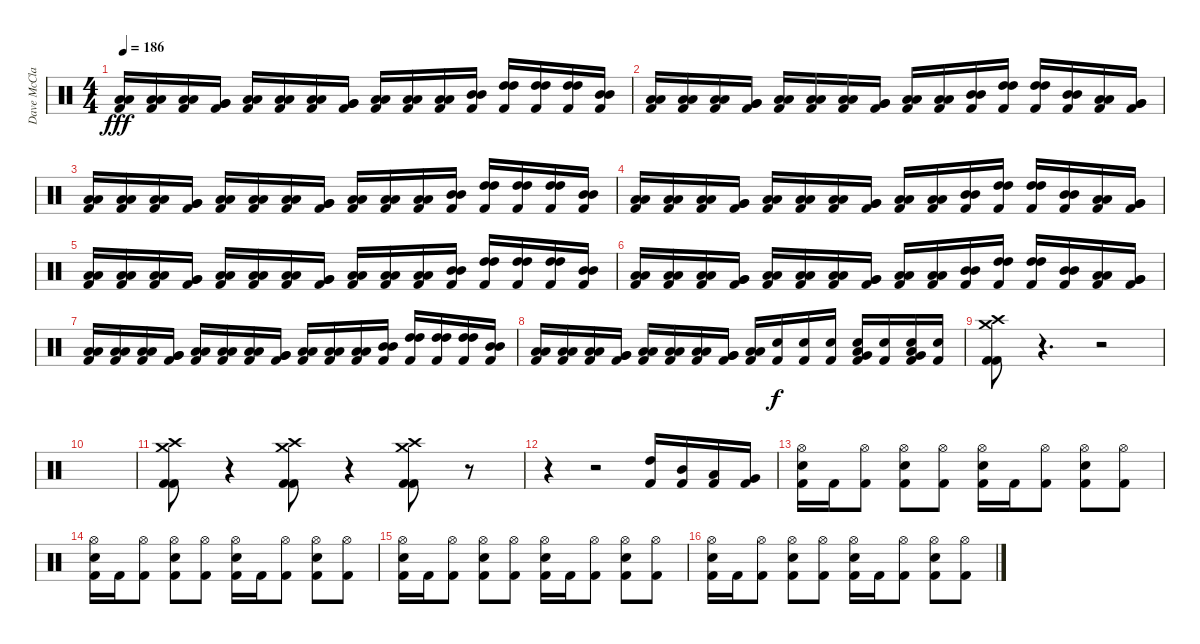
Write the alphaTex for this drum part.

\track ("Dave McClain" "Dave McCla") {instrument percussion}
\staff {score}
\articulation defaults
\ts (4 4)
\tempo 186
\clef neutral
\ks c
("Low Tom (hit)" "Low Tom (hit)" "Kick (hit) 2").16{dy fff} ("Low Tom (hit)" "Low Tom (hit)" "Kick (hit) 2").16 ("Low Tom (hit)" "Low Tom (hit)" "Kick (hit) 2").16 ("Very Low Tom (hit)" "Very Low Tom (hit)" "Kick (hit) 2").16 ("Low Floor Tom (hit)" "Low Floor Tom (hit)" "Kick (hit) 2").16 ("Low Floor Tom (hit)" "Low Floor Tom (hit)" "Kick (hit) 2").16 ("Low Floor Tom (hit)" "Low Floor Tom (hit)" "Kick (hit) 2").16 ("Very Low Tom (hit)" "Very Low Tom (hit)" "Kick (hit) 2").16 ("Low Tom (hit)" "Low Tom (hit)" "Kick (hit) 2").16 ("Low Tom (hit)" "Low Tom (hit)" "Kick (hit) 2").16 ("Low Tom (hit)" "Low Tom (hit)" "Kick (hit) 2").16 ("Mid Tom (hit)" "Mid Tom (hit)" "Kick (hit) 2").16 ("High Tom (hit)" "High Tom (hit)" "Kick (hit) 2").16 ("High Tom (hit)" "High Tom (hit)" "Kick (hit) 2").16 ("High Tom (hit)" "High Tom (hit)" "Kick (hit) 2").16 ("Mid Tom (hit)" "Mid Tom (hit)" "Kick (hit) 2").16 |
("Low Tom (hit)" "Low Tom (hit)" "Kick (hit) 2").16 ("Low Tom (hit)" "Low Tom (hit)" "Kick (hit) 2").16 ("Low Tom (hit)" "Low Tom (hit)" "Kick (hit) 2").16 ("Very Low Tom (hit)" "Very Low Tom (hit)" "Kick (hit) 2").16 ("Low Floor Tom (hit)" "Low Floor Tom (hit)" "Kick (hit) 2").16 ("Low Floor Tom (hit)" "Low Floor Tom (hit)" "Kick (hit) 2").16 ("Low Floor Tom (hit)" "Low Floor Tom (hit)" "Kick (hit) 2").16 ("Very Low Tom (hit)" "Very Low Tom (hit)" "Kick (hit) 2").16 ("Low Tom (hit)" "Low Tom (hit)" "Kick (hit) 2").16 ("Low Tom (hit)" "Low Tom (hit)" "Kick (hit) 2").16 ("Mid Tom (hit)" "Mid Tom (hit)" "Kick (hit) 2").16 ("High Tom (hit)" "High Tom (hit)" "Kick (hit) 2").16 ("High Tom (hit)" "High Tom (hit)" "Kick (hit) 2").16 ("Mid Tom (hit)" "Mid Tom (hit)" "Kick (hit) 2").16 ("Low Tom (hit)" "Low Tom (hit)" "Kick (hit) 2").16 ("Very Low Tom (hit)" "Very Low Tom (hit)" "Kick (hit) 2").16 |
("Low Tom (hit)" "Low Tom (hit)" "Kick (hit) 2").16 ("Low Tom (hit)" "Low Tom (hit)" "Kick (hit) 2").16 ("Low Tom (hit)" "Low Tom (hit)" "Kick (hit) 2").16 ("Very Low Tom (hit)" "Very Low Tom (hit)" "Kick (hit) 2").16 ("Low Floor Tom (hit)" "Low Floor Tom (hit)" "Kick (hit) 2").16 ("Low Floor Tom (hit)" "Low Floor Tom (hit)" "Kick (hit) 2").16 ("Low Floor Tom (hit)" "Low Floor Tom (hit)" "Kick (hit) 2").16 ("Very Low Tom (hit)" "Very Low Tom (hit)" "Kick (hit) 2").16 ("Low Tom (hit)" "Low Tom (hit)" "Kick (hit) 2").16 ("Low Tom (hit)" "Low Tom (hit)" "Kick (hit) 2").16 ("Low Tom (hit)" "Low Tom (hit)" "Kick (hit) 2").16 ("Mid Tom (hit)" "Mid Tom (hit)" "Kick (hit) 2").16 ("High Tom (hit)" "High Tom (hit)" "Kick (hit) 2").16 ("High Tom (hit)" "High Tom (hit)" "Kick (hit) 2").16 ("High Tom (hit)" "High Tom (hit)" "Kick (hit) 2").16 ("Mid Tom (hit)" "Mid Tom (hit)" "Kick (hit) 2").16 |
("Low Tom (hit)" "Low Tom (hit)" "Kick (hit) 2").16 ("Low Tom (hit)" "Low Tom (hit)" "Kick (hit) 2").16 ("Low Tom (hit)" "Low Tom (hit)" "Kick (hit) 2").16 ("Very Low Tom (hit)" "Very Low Tom (hit)" "Kick (hit) 2").16 ("Low Floor Tom (hit)" "Low Floor Tom (hit)" "Kick (hit) 2").16 ("Low Floor Tom (hit)" "Low Floor Tom (hit)" "Kick (hit) 2").16 ("Low Floor Tom (hit)" "Low Floor Tom (hit)" "Kick (hit) 2").16 ("Very Low Tom (hit)" "Very Low Tom (hit)" "Kick (hit) 2").16 ("Low Tom (hit)" "Low Tom (hit)" "Kick (hit) 2").16 ("Low Tom (hit)" "Low Tom (hit)" "Kick (hit) 2").16 ("Mid Tom (hit)" "Mid Tom (hit)" "Kick (hit) 2").16 ("High Tom (hit)" "High Tom (hit)" "Kick (hit) 2").16 ("High Tom (hit)" "High Tom (hit)" "Kick (hit) 2").16 ("Mid Tom (hit)" "Mid Tom (hit)" "Kick (hit) 2").16 ("Low Tom (hit)" "Low Tom (hit)" "Kick (hit) 2").16 ("Very Low Tom (hit)" "Very Low Tom (hit)" "Kick (hit) 2").16 |
("Low Tom (hit)" "Low Tom (hit)" "Kick (hit) 2").16 ("Low Tom (hit)" "Low Tom (hit)" "Kick (hit) 2").16 ("Low Tom (hit)" "Low Tom (hit)" "Kick (hit) 2").16 ("Very Low Tom (hit)" "Very Low Tom (hit)" "Kick (hit) 2").16 ("Low Floor Tom (hit)" "Low Floor Tom (hit)" "Kick (hit) 2").16 ("Low Floor Tom (hit)" "Low Floor Tom (hit)" "Kick (hit) 2").16 ("Low Floor Tom (hit)" "Low Floor Tom (hit)" "Kick (hit) 2").16 ("Very Low Tom (hit)" "Very Low Tom (hit)" "Kick (hit) 2").16 ("Low Tom (hit)" "Low Tom (hit)" "Kick (hit) 2").16 ("Low Tom (hit)" "Low Tom (hit)" "Kick (hit) 2").16 ("Low Tom (hit)" "Low Tom (hit)" "Kick (hit) 2").16 ("Mid Tom (hit)" "Mid Tom (hit)" "Kick (hit) 2").16 ("High Tom (hit)" "High Tom (hit)" "Kick (hit) 2").16 ("High Tom (hit)" "High Tom (hit)" "Kick (hit) 2").16 ("High Tom (hit)" "High Tom (hit)" "Kick (hit) 2").16 ("Mid Tom (hit)" "Mid Tom (hit)" "Kick (hit) 2").16 |
("Low Tom (hit)" "Low Tom (hit)" "Kick (hit) 2").16 ("Low Tom (hit)" "Low Tom (hit)" "Kick (hit) 2").16 ("Low Tom (hit)" "Low Tom (hit)" "Kick (hit) 2").16 ("Very Low Tom (hit)" "Very Low Tom (hit)" "Kick (hit) 2").16 ("Low Floor Tom (hit)" "Low Floor Tom (hit)" "Kick (hit) 2").16 ("Low Floor Tom (hit)" "Low Floor Tom (hit)" "Kick (hit) 2").16 ("Low Floor Tom (hit)" "Low Floor Tom (hit)" "Kick (hit) 2").16 ("Very Low Tom (hit)" "Very Low Tom (hit)" "Kick (hit) 2").16 ("Low Tom (hit)" "Low Tom (hit)" "Kick (hit) 2").16 ("Low Tom (hit)" "Low Tom (hit)" "Kick (hit) 2").16 ("Mid Tom (hit)" "Mid Tom (hit)" "Kick (hit) 2").16 ("High Tom (hit)" "High Tom (hit)" "Kick (hit) 2").16 ("High Tom (hit)" "High Tom (hit)" "Kick (hit) 2").16 ("Mid Tom (hit)" "Mid Tom (hit)" "Kick (hit) 2").16 ("Low Tom (hit)" "Low Tom (hit)" "Kick (hit) 2").16 ("Very Low Tom (hit)" "Very Low Tom (hit)" "Kick (hit) 2").16 |
("Low Tom (hit)" "Low Tom (hit)" "Kick (hit) 2").16 ("Low Tom (hit)" "Low Tom (hit)" "Kick (hit) 2").16 ("Low Tom (hit)" "Low Tom (hit)" "Kick (hit) 2").16 ("Very Low Tom (hit)" "Very Low Tom (hit)" "Kick (hit) 2").16 ("Low Floor Tom (hit)" "Low Floor Tom (hit)" "Kick (hit) 2").16 ("Low Floor Tom (hit)" "Low Floor Tom (hit)" "Kick (hit) 2").16 ("Low Floor Tom (hit)" "Low Floor Tom (hit)" "Kick (hit) 2").16 ("Very Low Tom (hit)" "Very Low Tom (hit)" "Kick (hit) 2").16 ("Low Tom (hit)" "Low Tom (hit)" "Kick (hit) 2").16 ("Low Tom (hit)" "Low Tom (hit)" "Kick (hit) 2").16 ("Low Tom (hit)" "Low Tom (hit)" "Kick (hit) 2").16 ("Mid Tom (hit)" "Mid Tom (hit)" "Kick (hit) 2").16 ("High Tom (hit)" "High Tom (hit)" "Kick (hit) 2").16 ("High Tom (hit)" "High Tom (hit)" "Kick (hit) 2").16 ("High Tom (hit)" "High Tom (hit)" "Kick (hit) 2").16 ("Mid Tom (hit)" "Mid Tom (hit)" "Kick (hit) 2").16 |
("Low Tom (hit)" "Low Tom (hit)" "Kick (hit) 2").16 ("Low Tom (hit)" "Low Tom (hit)" "Kick (hit) 2").16 ("Low Tom (hit)" "Low Tom (hit)" "Kick (hit) 2").16 ("Very Low Tom (hit)" "Very Low Tom (hit)" "Kick (hit) 2").16 ("Low Floor Tom (hit)" "Low Floor Tom (hit)" "Kick (hit) 2").16 ("Low Floor Tom (hit)" "Low Floor Tom (hit)" "Kick (hit) 2").16 ("Low Floor Tom (hit)" "Low Floor Tom (hit)" "Kick (hit) 2").16 ("Very Low Tom (hit)" "Very Low Tom (hit)" "Kick (hit) 2").16 ("Low Tom (hit)" "Low Tom (hit)" "Kick (hit) 2").16 ("Snare (hit) 2" "Kick (hit) 2").16{dy f} ("Snare (hit) 2" "Kick (hit) 2").16 ("Snare (hit) 2" "Kick (hit) 2").16 ("Very Low Tom (hit)" "Low Tom (hit)" "Snare (hit) 2" "Kick (hit) 2").16 ("Snare (hit) 2" "Kick (hit) 2").16 ("Very Low Tom (hit)" "Low Tom (hit)" "Snare (hit) 2" "Kick (hit) 2").16 ("Snare (hit) 2" "Kick (hit) 2").16 |
("Crash medium (hit)" "Crash high (hit)" "Kick (hit) 2" "Kick (hit) 2").8 r.4{d} r.2 |
|
("Crash medium (hit)" "Crash high (hit)" "Kick (hit) 2" "Kick (hit) 2").8 r.4 ("Crash medium (hit)" "Crash high (hit)" "Kick (hit) 2" "Kick (hit) 2").8 r.4 ("Crash medium (hit)" "Crash high (hit)" "Kick (hit) 2" "Kick (hit) 2").8 r.8 |
r.4 r.2 ("High Tom (hit)" "Kick (hit) 2").16 ("Mid Tom (hit)" "Kick (hit) 2").16 ("Low Tom (hit)" "Kick (hit) 2").16 ("Very Low Tom (hit)" "Kick (hit) 2").16 |
("Hi-Hat (open)" "Snare (hit) 2" "Kick (hit) 2").16 "Kick (hit) 2".16 ("Hi-Hat (open)" "Kick (hit) 2").8 ("Hi-Hat (open)" "Snare (hit) 2" "Kick (hit) 2").8 ("Hi-Hat (open)" "Kick (hit) 2").8 ("Hi-Hat (open)" "Snare (hit) 2" "Kick (hit) 2").16 "Kick (hit) 2".16 ("Hi-Hat (open)" "Kick (hit) 2").8 ("Hi-Hat (open)" "Snare (hit) 2" "Kick (hit) 2").8 ("Hi-Hat (open)" "Kick (hit) 2").8 |
("Hi-Hat (open)" "Snare (hit) 2" "Kick (hit) 2").16 "Kick (hit) 2".16 ("Hi-Hat (open)" "Kick (hit) 2").8 ("Hi-Hat (open)" "Snare (hit) 2" "Kick (hit) 2").8 ("Hi-Hat (open)" "Kick (hit) 2").8 ("Hi-Hat (open)" "Snare (hit) 2" "Kick (hit) 2").16 "Kick (hit) 2".16 ("Hi-Hat (open)" "Kick (hit) 2").8 ("Hi-Hat (open)" "Snare (hit) 2" "Kick (hit) 2").8 ("Hi-Hat (open)" "Kick (hit) 2").8 |
("Hi-Hat (open)" "Snare (hit) 2" "Kick (hit) 2").16 "Kick (hit) 2".16 ("Hi-Hat (open)" "Kick (hit) 2").8 ("Hi-Hat (open)" "Snare (hit) 2" "Kick (hit) 2").8 ("Hi-Hat (open)" "Kick (hit) 2").8 ("Hi-Hat (open)" "Snare (hit) 2" "Kick (hit) 2").16 "Kick (hit) 2".16 ("Hi-Hat (open)" "Kick (hit) 2").8 ("Hi-Hat (open)" "Snare (hit) 2" "Kick (hit) 2").8 ("Hi-Hat (open)" "Kick (hit) 2").8 |
("Hi-Hat (open)" "Snare (hit) 2" "Kick (hit) 2").16 "Kick (hit) 2".16 ("Hi-Hat (open)" "Kick (hit) 2").8 ("Hi-Hat (open)" "Snare (hit) 2" "Kick (hit) 2").8 ("Hi-Hat (open)" "Kick (hit) 2").8 ("Hi-Hat (open)" "Snare (hit) 2" "Kick (hit) 2").16 "Kick (hit) 2".16 ("Hi-Hat (open)" "Kick (hit) 2").8 ("Hi-Hat (open)" "Snare (hit) 2" "Kick (hit) 2").8 ("Hi-Hat (open)" "Kick (hit) 2").8
